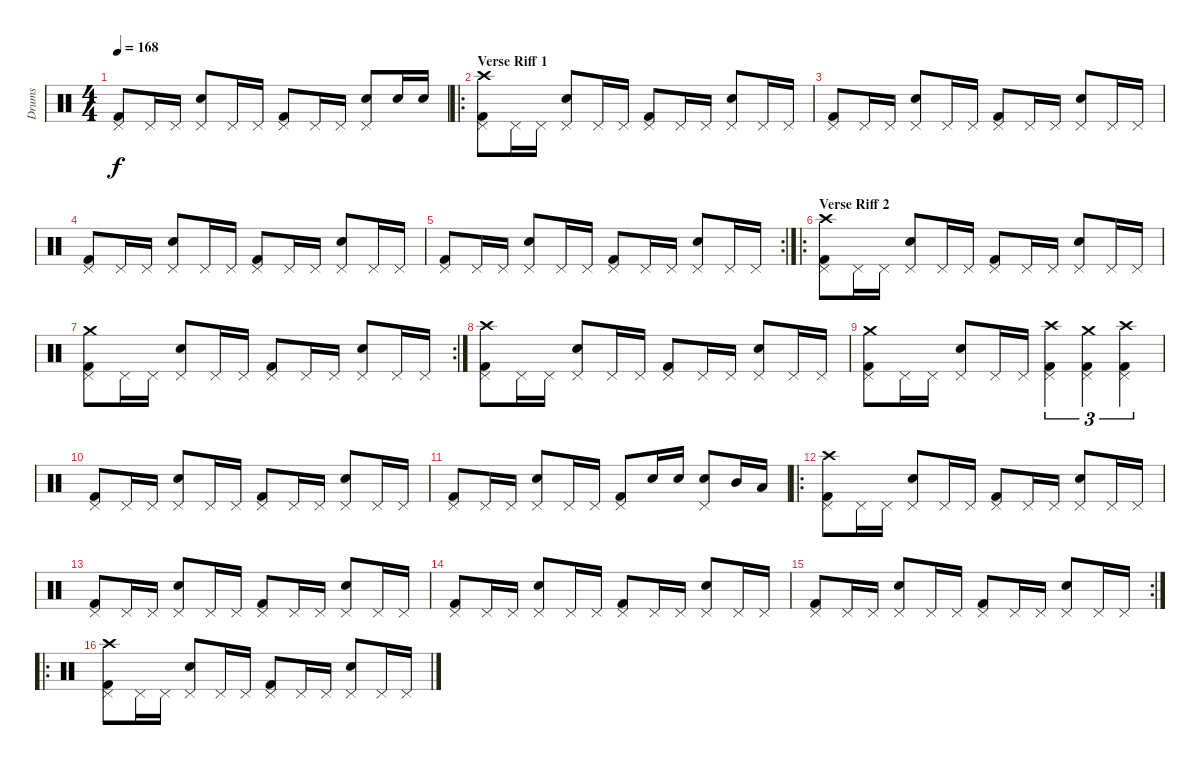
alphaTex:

\track ("Drums" "Drums") {instrument percussion}
\staff {score}
\articulation defaults
\ts (4 4)
\tempo 168
\clef neutral
\ks c
("Kick (hit) 2" "Pedal Hi-Hat (hit)").8{dy f} "Pedal Hi-Hat (hit)".16 "Pedal Hi-Hat (hit)".16 ("Snare (hit) 2" "Pedal Hi-Hat (hit)").8 "Pedal Hi-Hat (hit)".16 "Pedal Hi-Hat (hit)".16 ("Kick (hit) 2" "Pedal Hi-Hat (hit)").8 "Pedal Hi-Hat (hit)".16 "Pedal Hi-Hat (hit)".16 ("Snare (hit) 2" "Pedal Hi-Hat (hit)").8 "Snare (hit) 2".16 "Snare (hit) 2".16 |
\ro
\section ("" "Verse Riff 1")
("Kick (hit) 2" "Pedal Hi-Hat (hit)" "Crash high (hit)").8 "Pedal Hi-Hat (hit)".16 "Pedal Hi-Hat (hit)".16 ("Snare (hit) 2" "Pedal Hi-Hat (hit)").8 "Pedal Hi-Hat (hit)".16 "Pedal Hi-Hat (hit)".16 ("Kick (hit) 2" "Pedal Hi-Hat (hit)").8 "Pedal Hi-Hat (hit)".16 "Pedal Hi-Hat (hit)".16 ("Snare (hit) 2" "Pedal Hi-Hat (hit)").8 "Pedal Hi-Hat (hit)".16 "Pedal Hi-Hat (hit)".16 |
("Kick (hit) 2" "Pedal Hi-Hat (hit)").8 "Pedal Hi-Hat (hit)".16 "Pedal Hi-Hat (hit)".16 ("Snare (hit) 2" "Pedal Hi-Hat (hit)").8 "Pedal Hi-Hat (hit)".16 "Pedal Hi-Hat (hit)".16 ("Kick (hit) 2" "Pedal Hi-Hat (hit)").8 "Pedal Hi-Hat (hit)".16 "Pedal Hi-Hat (hit)".16 ("Snare (hit) 2" "Pedal Hi-Hat (hit)").8 "Pedal Hi-Hat (hit)".16 "Pedal Hi-Hat (hit)".16 |
("Kick (hit) 2" "Pedal Hi-Hat (hit)").8 "Pedal Hi-Hat (hit)".16 "Pedal Hi-Hat (hit)".16 ("Snare (hit) 2" "Pedal Hi-Hat (hit)").8 "Pedal Hi-Hat (hit)".16 "Pedal Hi-Hat (hit)".16 ("Kick (hit) 2" "Pedal Hi-Hat (hit)").8 "Pedal Hi-Hat (hit)".16 "Pedal Hi-Hat (hit)".16 ("Snare (hit) 2" "Pedal Hi-Hat (hit)").8 "Pedal Hi-Hat (hit)".16 "Pedal Hi-Hat (hit)".16 |
\rc 2
("Kick (hit) 2" "Pedal Hi-Hat (hit)").8 "Pedal Hi-Hat (hit)".16 "Pedal Hi-Hat (hit)".16 ("Snare (hit) 2" "Pedal Hi-Hat (hit)").8 "Pedal Hi-Hat (hit)".16 "Pedal Hi-Hat (hit)".16 ("Kick (hit) 2" "Pedal Hi-Hat (hit)").8 "Pedal Hi-Hat (hit)".16 "Pedal Hi-Hat (hit)".16 ("Snare (hit) 2" "Pedal Hi-Hat (hit)").8 "Pedal Hi-Hat (hit)".16 "Pedal Hi-Hat (hit)".16 |
\ro
\section ("" "Verse Riff 2")
("Kick (hit) 2" "Pedal Hi-Hat (hit)" "Crash high (hit)").8 "Pedal Hi-Hat (hit)".16 "Pedal Hi-Hat (hit)".16 ("Snare (hit) 2" "Pedal Hi-Hat (hit)").8 "Pedal Hi-Hat (hit)".16 "Pedal Hi-Hat (hit)".16 ("Kick (hit) 2" "Pedal Hi-Hat (hit)").8 "Pedal Hi-Hat (hit)".16 "Pedal Hi-Hat (hit)".16 ("Snare (hit) 2" "Pedal Hi-Hat (hit)").8 "Pedal Hi-Hat (hit)".16 "Pedal Hi-Hat (hit)".16 |
\rc 2
("Kick (hit) 2" "Pedal Hi-Hat (hit)" "Crash medium (hit)").8 "Pedal Hi-Hat (hit)".16 "Pedal Hi-Hat (hit)".16 ("Snare (hit) 2" "Pedal Hi-Hat (hit)").8 "Pedal Hi-Hat (hit)".16 "Pedal Hi-Hat (hit)".16 ("Kick (hit) 2" "Pedal Hi-Hat (hit)").8 "Pedal Hi-Hat (hit)".16 "Pedal Hi-Hat (hit)".16 ("Snare (hit) 2" "Pedal Hi-Hat (hit)").8 "Pedal Hi-Hat (hit)".16 "Pedal Hi-Hat (hit)".16 |
("Kick (hit) 2" "Pedal Hi-Hat (hit)" "Crash high (hit)").8 "Pedal Hi-Hat (hit)".16 "Pedal Hi-Hat (hit)".16 ("Snare (hit) 2" "Pedal Hi-Hat (hit)").8 "Pedal Hi-Hat (hit)".16 "Pedal Hi-Hat (hit)".16 ("Kick (hit) 2" "Pedal Hi-Hat (hit)").8 "Pedal Hi-Hat (hit)".16 "Pedal Hi-Hat (hit)".16 ("Snare (hit) 2" "Pedal Hi-Hat (hit)").8 "Pedal Hi-Hat (hit)".16 "Pedal Hi-Hat (hit)".16 |
("Kick (hit) 2" "Pedal Hi-Hat (hit)" "Crash medium (hit)").8 "Pedal Hi-Hat (hit)".16 "Pedal Hi-Hat (hit)".16 ("Snare (hit) 2" "Pedal Hi-Hat (hit)").8 "Pedal Hi-Hat (hit)".16 "Pedal Hi-Hat (hit)".16 ("Kick (hit) 2" "Pedal Hi-Hat (hit)" "Crash high (hit)").4{tu (3 2)} ("Kick (hit) 2" "Pedal Hi-Hat (hit)" "Crash medium (hit)").4{tu (3 2)} ("Kick (hit) 2" "Pedal Hi-Hat (hit)" "Crash high (hit)").4{tu (3 2)} |
("Kick (hit) 2" "Pedal Hi-Hat (hit)").8 "Pedal Hi-Hat (hit)".16 "Pedal Hi-Hat (hit)".16 ("Snare (hit) 2" "Pedal Hi-Hat (hit)").8 "Pedal Hi-Hat (hit)".16 "Pedal Hi-Hat (hit)".16 ("Kick (hit) 2" "Pedal Hi-Hat (hit)").8 "Pedal Hi-Hat (hit)".16 "Pedal Hi-Hat (hit)".16 ("Snare (hit) 2" "Pedal Hi-Hat (hit)").8 "Pedal Hi-Hat (hit)".16 "Pedal Hi-Hat (hit)".16 |
("Kick (hit) 2" "Pedal Hi-Hat (hit)").8 "Pedal Hi-Hat (hit)".16 "Pedal Hi-Hat (hit)".16 ("Snare (hit) 2" "Pedal Hi-Hat (hit)").8 "Pedal Hi-Hat (hit)".16 "Pedal Hi-Hat (hit)".16 ("Kick (hit) 2" "Pedal Hi-Hat (hit)").8 "Snare (hit) 2".16 "Snare (hit) 2".16 ("Snare (hit) 2" "Pedal Hi-Hat (hit)").8 "Mid Tom (hit)".16 "Low Tom (hit)".16 |
\ro
("Kick (hit) 2" "Pedal Hi-Hat (hit)" "Crash high (hit)").8 "Pedal Hi-Hat (hit)".16 "Pedal Hi-Hat (hit)".16 ("Snare (hit) 2" "Pedal Hi-Hat (hit)").8 "Pedal Hi-Hat (hit)".16 "Pedal Hi-Hat (hit)".16 ("Kick (hit) 2" "Pedal Hi-Hat (hit)").8 "Pedal Hi-Hat (hit)".16 "Pedal Hi-Hat (hit)".16 ("Snare (hit) 2" "Pedal Hi-Hat (hit)").8 "Pedal Hi-Hat (hit)".16 "Pedal Hi-Hat (hit)".16 |
("Kick (hit) 2" "Pedal Hi-Hat (hit)").8 "Pedal Hi-Hat (hit)".16 "Pedal Hi-Hat (hit)".16 ("Snare (hit) 2" "Pedal Hi-Hat (hit)").8 "Pedal Hi-Hat (hit)".16 "Pedal Hi-Hat (hit)".16 ("Kick (hit) 2" "Pedal Hi-Hat (hit)").8 "Pedal Hi-Hat (hit)".16 "Pedal Hi-Hat (hit)".16 ("Snare (hit) 2" "Pedal Hi-Hat (hit)").8 "Pedal Hi-Hat (hit)".16 "Pedal Hi-Hat (hit)".16 |
("Kick (hit) 2" "Pedal Hi-Hat (hit)").8 "Pedal Hi-Hat (hit)".16 "Pedal Hi-Hat (hit)".16 ("Snare (hit) 2" "Pedal Hi-Hat (hit)").8 "Pedal Hi-Hat (hit)".16 "Pedal Hi-Hat (hit)".16 ("Kick (hit) 2" "Pedal Hi-Hat (hit)").8 "Pedal Hi-Hat (hit)".16 "Pedal Hi-Hat (hit)".16 ("Snare (hit) 2" "Pedal Hi-Hat (hit)").8 "Pedal Hi-Hat (hit)".16 "Pedal Hi-Hat (hit)".16 |
\rc 2
("Kick (hit) 2" "Pedal Hi-Hat (hit)").8 "Pedal Hi-Hat (hit)".16 "Pedal Hi-Hat (hit)".16 ("Snare (hit) 2" "Pedal Hi-Hat (hit)").8 "Pedal Hi-Hat (hit)".16 "Pedal Hi-Hat (hit)".16 ("Kick (hit) 2" "Pedal Hi-Hat (hit)").8 "Pedal Hi-Hat (hit)".16 "Pedal Hi-Hat (hit)".16 ("Snare (hit) 2" "Pedal Hi-Hat (hit)").8 "Pedal Hi-Hat (hit)".16 "Pedal Hi-Hat (hit)".16 |
\ro
("Kick (hit) 2" "Pedal Hi-Hat (hit)" "Crash high (hit)").8 "Pedal Hi-Hat (hit)".16 "Pedal Hi-Hat (hit)".16 ("Snare (hit) 2" "Pedal Hi-Hat (hit)").8 "Pedal Hi-Hat (hit)".16 "Pedal Hi-Hat (hit)".16 ("Kick (hit) 2" "Pedal Hi-Hat (hit)").8 "Pedal Hi-Hat (hit)".16 "Pedal Hi-Hat (hit)".16 ("Snare (hit) 2" "Pedal Hi-Hat (hit)").8 "Pedal Hi-Hat (hit)".16 "Pedal Hi-Hat (hit)".16
